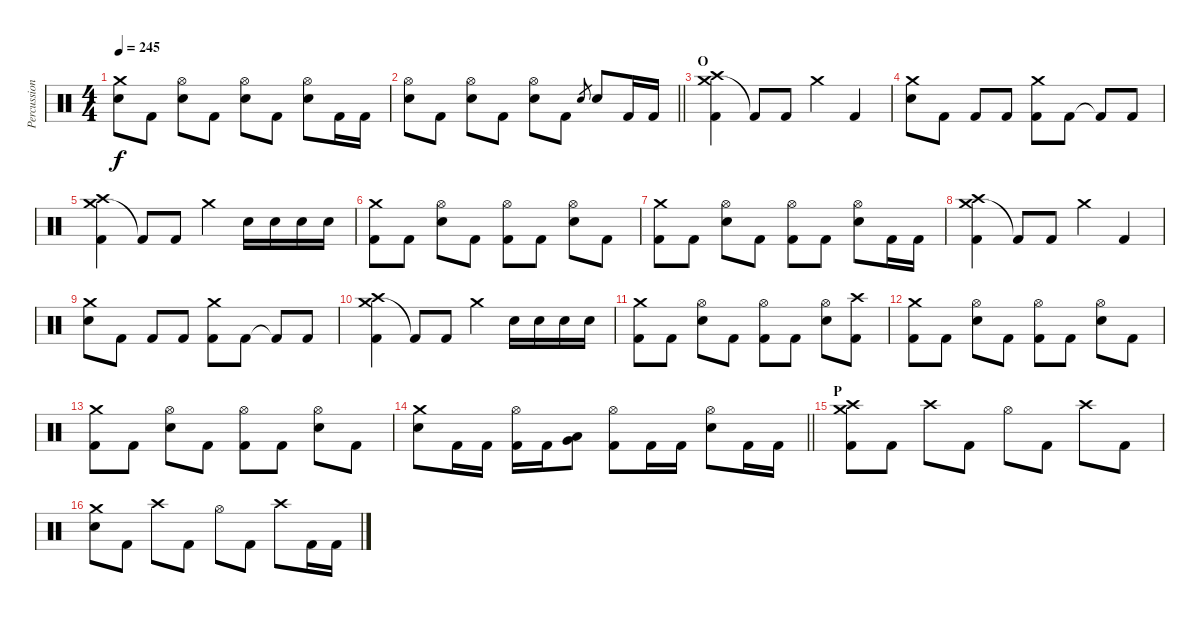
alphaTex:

\track ("Percussion" "Percussion") {instrument percussion}
\staff {score}
\articulation defaults
\ts (4 4)
\tempo 245
\clef neutral
\ks c
("Crash medium (hit)" "Electric Snare (hit)").8{dy f} "Kick (hit) 2".8 ("Hi-Hat (open)" "Electric Snare (hit)").8 "Kick (hit) 2".8 ("Hi-Hat (open)" "Electric Snare (hit)").8 "Kick (hit) 2".8 ("Hi-Hat (open)" "Electric Snare (hit)").8 "Kick (hit) 2".16 "Kick (hit) 2".16 |
\barLineRight lightlight
("Hi-Hat (open)" "Electric Snare (hit)").8 "Kick (hit) 2".8 ("Hi-Hat (open)" "Electric Snare (hit)").8 "Kick (hit) 2".8 ("Hi-Hat (open)" "Electric Snare (hit)").8 "Kick (hit) 2".8 "Electric Snare (hit)".8{gr} "Electric Snare (hit)".8 "Kick (hit) 2".16 "Kick (hit) 2".16 |
\section ("" "O")
("Crash medium (hit)" "Crash high (hit)" "Kick (hit) 2").4 "Kick (hit) 2"{t}.8 "Kick (hit) 2".8 "Crash medium (hit)".4 "Kick (hit) 2".4 |
("Crash medium (hit)" "Electric Snare (hit)").8 "Kick (hit) 2".8 "Kick (hit) 2".8 "Kick (hit) 2".8 ("Crash medium (hit)" "Kick (hit) 2").8 "Kick (hit) 2".8 "Kick (hit) 2"{t}.8 "Kick (hit) 2".8 |
("Crash medium (hit)" "Crash high (hit)" "Kick (hit) 2").4 "Kick (hit) 2"{t}.8 "Kick (hit) 2".8 "Crash medium (hit)".4 "Electric Snare (hit)".16 "Electric Snare (hit)".16 "Electric Snare (hit)".16 "Electric Snare (hit)".16 |
("Crash medium (hit)" "Kick (hit) 2").8 "Kick (hit) 2".8 ("Hi-Hat (open)" "Electric Snare (hit)").8 "Kick (hit) 2".8 ("Hi-Hat (open)" "Kick (hit) 2").8 "Kick (hit) 2".8 ("Hi-Hat (open)" "Electric Snare (hit)").8 "Kick (hit) 2".8 |
("Crash medium (hit)" "Kick (hit) 2").8 "Kick (hit) 2".8 ("Hi-Hat (open)" "Electric Snare (hit)").8 "Kick (hit) 2".8 ("Hi-Hat (open)" "Kick (hit) 2").8 "Kick (hit) 2".8 ("Hi-Hat (open)" "Electric Snare (hit)").8 "Kick (hit) 2".16 "Kick (hit) 2".16 |
("Crash medium (hit)" "Crash high (hit)" "Kick (hit) 2").4 "Kick (hit) 2"{t}.8 "Kick (hit) 2".8 "Crash medium (hit)".4 "Kick (hit) 2".4 |
("Crash medium (hit)" "Electric Snare (hit)").8 "Kick (hit) 2".8 "Kick (hit) 2".8 "Kick (hit) 2".8 ("Crash medium (hit)" "Kick (hit) 2").8 "Kick (hit) 2".8 "Kick (hit) 2"{t}.8 "Kick (hit) 2".8 |
("Crash medium (hit)" "Crash high (hit)" "Kick (hit) 2").4 "Kick (hit) 2"{t}.8 "Kick (hit) 2".8 "Crash medium (hit)".4 "Electric Snare (hit)".16 "Electric Snare (hit)".16 "Electric Snare (hit)".16 "Electric Snare (hit)".16 |
("Crash medium (hit)" "Kick (hit) 2").8 "Kick (hit) 2".8 ("Hi-Hat (open)" "Electric Snare (hit)").8 "Kick (hit) 2".8 ("Hi-Hat (open)" "Kick (hit) 2").8 "Kick (hit) 2".8 ("Hi-Hat (open)" "Electric Snare (hit)").8 ("Crash high (hit)" "Kick (hit) 2").8 |
("Crash medium (hit)" "Kick (hit) 2").8 "Kick (hit) 2".8 ("Hi-Hat (open)" "Electric Snare (hit)").8 "Kick (hit) 2".8 ("Hi-Hat (open)" "Kick (hit) 2").8 "Kick (hit) 2".8 ("Hi-Hat (open)" "Electric Snare (hit)").8 "Kick (hit) 2".8 |
("Crash medium (hit)" "Kick (hit) 2").8 "Kick (hit) 2".8 ("Hi-Hat (open)" "Electric Snare (hit)").8 "Kick (hit) 2".8 ("Hi-Hat (open)" "Kick (hit) 2").8 "Kick (hit) 2".8 ("Hi-Hat (open)" "Electric Snare (hit)").8 "Kick (hit) 2".8 |
\barLineRight lightlight
("Crash medium (hit)" "Electric Snare (hit)").8 "Kick (hit) 2".16 "Kick (hit) 2".16 ("Hi-Hat (open)" "Kick (hit) 2").16 "Kick (hit) 2".16 ("Very Low Tom (hit)" "Low Floor Tom (hit)").8 ("Hi-Hat (open)" "Kick (hit) 2").8 "Kick (hit) 2".16 "Kick (hit) 2".16 ("Hi-Hat (open)" "Electric Snare (hit)").8 "Kick (hit) 2".16 "Kick (hit) 2".16 |
\section ("" "P")
("Crash medium (hit)" "Crash high (hit)" "Kick (hit) 2").8 "Kick (hit) 2".8 "Crash high (hit)".8 "Kick (hit) 2".8 "Hi-Hat (open)".8 "Kick (hit) 2".8 "Crash high (hit)".8 "Kick (hit) 2".8 |
("Crash medium (hit)" "Electric Snare (hit)").8 "Kick (hit) 2".8 "Crash high (hit)".8 "Kick (hit) 2".8 "Hi-Hat (open)".8 "Kick (hit) 2".8 "Crash high (hit)".8 "Kick (hit) 2".16 "Kick (hit) 2".16
